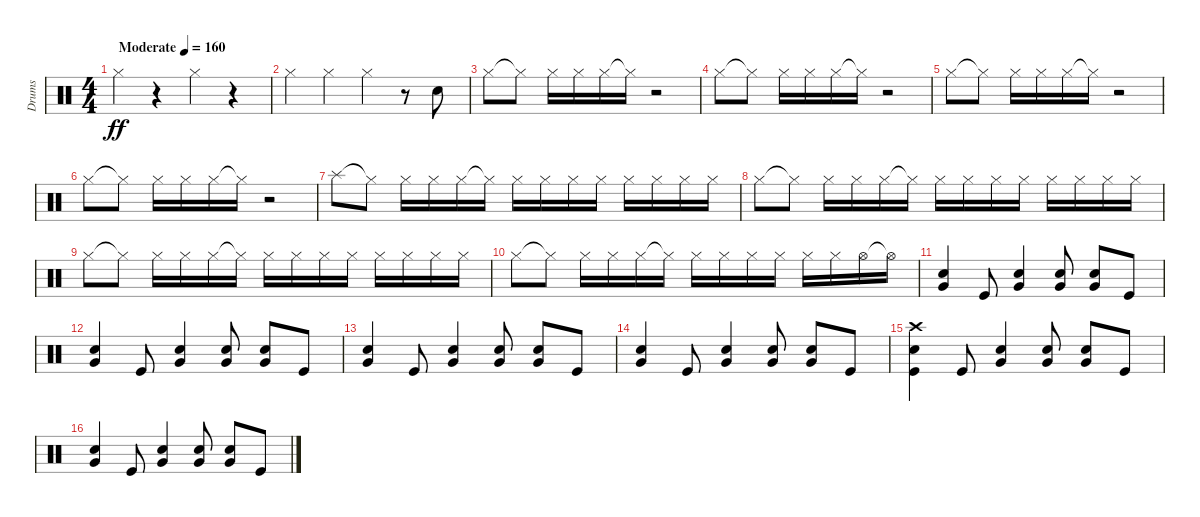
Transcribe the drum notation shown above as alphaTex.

\track ("Drums" "Drums") {instrument percussion}
\staff {score}
\articulation defaults
\ts (4 4)
\tempo (160 "Moderate")
\clef neutral
\ks c "Hi-Hat (closed)".4{dy ff}
r.4 "Hi-Hat (closed)".4 r.4 |
"Hi-Hat (closed)".4 "Hi-Hat (closed)".4 "Hi-Hat (closed)".4 r.8 "Snare (hit) 2".8 |
"Hi-Hat (closed)".8 "Hi-Hat (closed)"{t}.8 "Hi-Hat (closed)".16 "Hi-Hat (closed)".16 "Hi-Hat (closed)".16 "Hi-Hat (closed)"{t}.16 r.2 |
"Hi-Hat (closed)".8 "Hi-Hat (closed)"{t}.8 "Hi-Hat (closed)".16 "Hi-Hat (closed)".16 "Hi-Hat (closed)".16 "Hi-Hat (closed)"{t}.16 r.2 |
"Hi-Hat (closed)".8 "Hi-Hat (closed)"{t}.8 "Hi-Hat (closed)".16 "Hi-Hat (closed)".16 "Hi-Hat (closed)".16 "Hi-Hat (closed)"{t}.16 r.2 |
"Hi-Hat (closed)".8 "Hi-Hat (closed)"{t}.8 "Hi-Hat (closed)".16 "Hi-Hat (closed)".16 "Hi-Hat (closed)".16 "Hi-Hat (closed)"{t}.16 r.2 |
"Splash (hit)".8 "Hi-Hat (closed)"{t}.8 "Hi-Hat (closed)".16 "Hi-Hat (closed)".16 "Hi-Hat (closed)".16 "Hi-Hat (closed)"{t}.16 "Hi-Hat (closed)".16 "Hi-Hat (closed)".16 "Hi-Hat (closed)".16 "Hi-Hat (closed)".16 "Hi-Hat (closed)".16 "Hi-Hat (closed)".16 "Hi-Hat (closed)".16 "Hi-Hat (closed)".16 |
"Hi-Hat (closed)".8 "Hi-Hat (closed)"{t}.8 "Hi-Hat (closed)".16 "Hi-Hat (closed)".16 "Hi-Hat (closed)".16 "Hi-Hat (closed)"{t}.16 "Hi-Hat (closed)".16 "Hi-Hat (closed)".16 "Hi-Hat (closed)".16 "Hi-Hat (closed)".16 "Hi-Hat (closed)".16 "Hi-Hat (closed)".16 "Hi-Hat (closed)".16 "Hi-Hat (closed)".16 |
"Hi-Hat (closed)".8 "Hi-Hat (closed)"{t}.8 "Hi-Hat (closed)".16 "Hi-Hat (closed)".16 "Hi-Hat (closed)".16 "Hi-Hat (closed)"{t}.16 "Hi-Hat (closed)".16 "Hi-Hat (closed)".16 "Hi-Hat (closed)".16 "Hi-Hat (closed)".16 "Hi-Hat (closed)".16 "Hi-Hat (closed)".16 "Hi-Hat (closed)".16 "Hi-Hat (closed)".16 |
"Hi-Hat (closed)".8 "Hi-Hat (closed)"{t}.8 "Hi-Hat (closed)".16 "Hi-Hat (closed)".16 "Hi-Hat (closed)".16 "Hi-Hat (closed)"{t}.16 "Hi-Hat (closed)".16 "Hi-Hat (closed)".16 "Hi-Hat (closed)".16 "Hi-Hat (closed)".16 "Hi-Hat (closed)".16 "Hi-Hat (closed)".16 "Hi-Hat (open)".16 "Hi-Hat (open)"{t}.16 |
("Electric Snare (hit)" "Very Low Tom (hit)").4 "Kick (hit)".8 ("Electric Snare (hit)" "Very Low Tom (hit)").4 ("Electric Snare (hit)" "Very Low Tom (hit)").8 ("Electric Snare (hit)" "Very Low Tom (hit)").8 "Kick (hit)".8 |
("Electric Snare (hit)" "Very Low Tom (hit)").4 "Kick (hit)".8 ("Electric Snare (hit)" "Very Low Tom (hit)").4 ("Electric Snare (hit)" "Very Low Tom (hit)").8 ("Electric Snare (hit)" "Very Low Tom (hit)").8 "Kick (hit)".8 |
("Electric Snare (hit)" "Very Low Tom (hit)").4 "Kick (hit)".8 ("Electric Snare (hit)" "Very Low Tom (hit)").4 ("Electric Snare (hit)" "Very Low Tom (hit)").8 ("Electric Snare (hit)" "Very Low Tom (hit)").8 "Kick (hit)".8 |
("Electric Snare (hit)" "Very Low Tom (hit)").4 "Kick (hit)".8 ("Electric Snare (hit)" "Very Low Tom (hit)").4 ("Electric Snare (hit)" "Very Low Tom (hit)").8 ("Electric Snare (hit)" "Very Low Tom (hit)").8 "Kick (hit)".8 |
("Crash high (hit)" "Electric Snare (hit)" "Kick (hit)").4 "Kick (hit)".8 ("Electric Snare (hit)" "Very Low Tom (hit)").4 ("Electric Snare (hit)" "Very Low Tom (hit)").8 ("Electric Snare (hit)" "Very Low Tom (hit)").8 "Kick (hit)".8 |
("Electric Snare (hit)" "Very Low Tom (hit)").4 "Kick (hit)".8 ("Electric Snare (hit)" "Very Low Tom (hit)").4 ("Electric Snare (hit)" "Very Low Tom (hit)").8 ("Electric Snare (hit)" "Very Low Tom (hit)").8 "Kick (hit)".8
